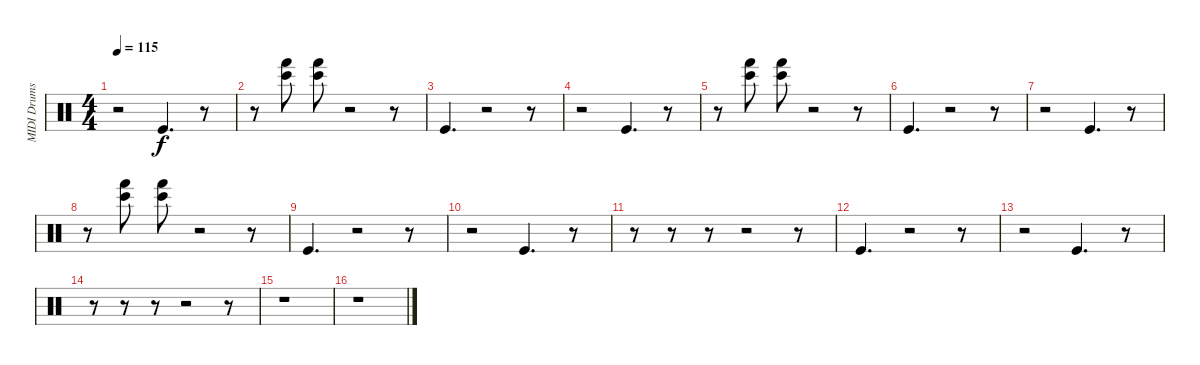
\track ("MIDI Drums" "MIDI Drums") {instrument percussion}
\staff {score}
\articulation defaults
\ts (4 4)
\tempo 115
\clef neutral
\ks c
r.2{dy f} "Kick (hit)".4{d} r.8 |
r.8 ("Hand (hit)" "Bongo High (hit)").8 ("Bongo High (hit)" "Hand (hit)").8 r.2 r.8 |
"Kick (hit)".4{d} r.2 r.8 |
r.2 "Kick (hit)".4{d} r.8 |
r.8 ("Bongo High (hit)" "Hand (hit)").8 ("Hand (hit)" "Bongo High (hit)").8 r.2 r.8 |
"Kick (hit)".4{d} r.2 r.8 |
r.2 "Kick (hit)".4{d} r.8 |
r.8 ("Hand (hit)" "Bongo High (hit)").8 ("Bongo High (hit)" "Hand (hit)").8 r.2 r.8 |
"Kick (hit)".4{d} r.2 r.8 |
r.2 "Kick (hit)".4{d} r.8 |
r.8 r.8 r.8 r.2 r.8 |
"Kick (hit)".4{d} r.2 r.8 |
r.2 "Kick (hit)".4{d} r.8 |
r.8 r.8 r.8 r.2 r.8 |
r.1 |
r.1
